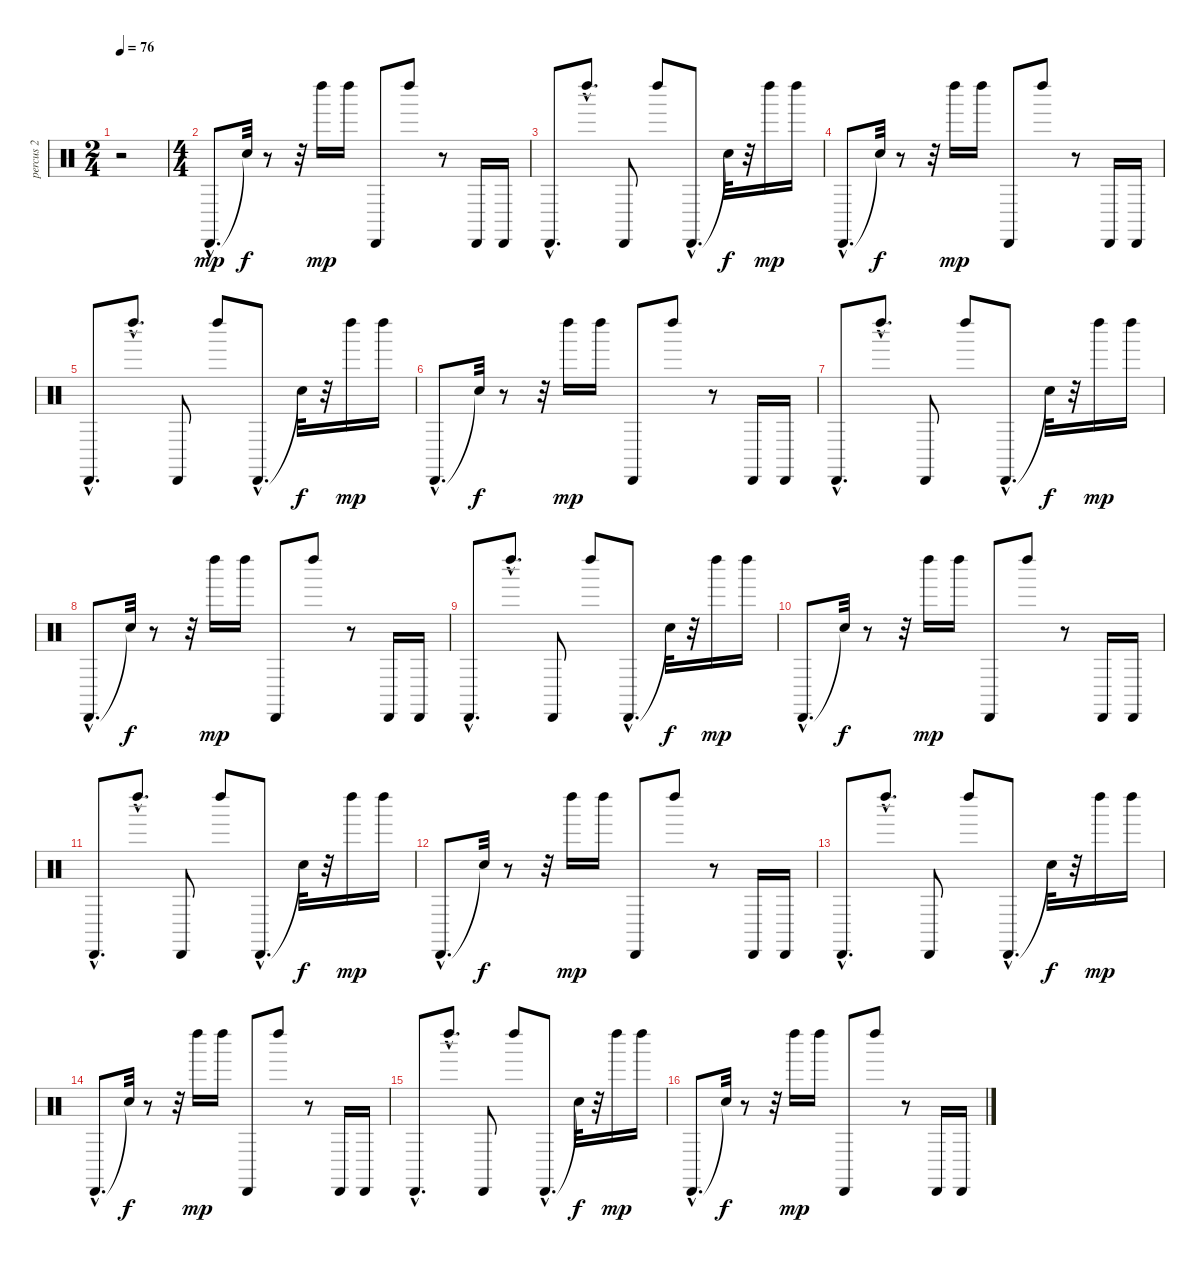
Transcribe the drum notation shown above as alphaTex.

\track ("percus 2" "percus 2") {instrument percussion}
\staff {score}
\articulation defaults
\ts (2 4)
\tempo 76
\clef neutral
\ks c
r.2{dy mp} |
\ts (4 4)
"Cabasa (hit)"{hac}.8{d} "Snare (hit)"{t}.32{dy f} r.8 r.32 "Left Maraca (hit)".16{dy mp} "Left Maraca (hit)".16 "Cabasa (hit)".8 "Left Maraca (hit)".8 r.8 "Cabasa (hit)".16 "Cabasa (hit)".16 |
"Cabasa (hit)"{hac}.8{d} "Left Maraca (hit)"{hac}.8{d} "Cabasa (hit)".8 "Left Maraca (hit)".8 "Cabasa (hit)"{hac}.8{d} "Snare (hit)"{t}.32{dy f} r.32 "Left Maraca (hit)".16{dy mp} "Left Maraca (hit)".16 |
"Cabasa (hit)"{hac}.8{d} "Snare (hit)"{t}.32{dy f} r.8 r.32 "Left Maraca (hit)".16{dy mp} "Left Maraca (hit)".16 "Cabasa (hit)".8 "Left Maraca (hit)".8 r.8 "Cabasa (hit)".16 "Cabasa (hit)".16 |
"Cabasa (hit)"{hac}.8{d} "Left Maraca (hit)"{hac}.8{d} "Cabasa (hit)".8 "Left Maraca (hit)".8 "Cabasa (hit)"{hac}.8{d} "Snare (hit)"{t}.32{dy f} r.32 "Left Maraca (hit)".16{dy mp} "Left Maraca (hit)".16 |
"Cabasa (hit)"{hac}.8{d} "Snare (hit)"{t}.32{dy f} r.8 r.32 "Left Maraca (hit)".16{dy mp} "Left Maraca (hit)".16 "Cabasa (hit)".8 "Left Maraca (hit)".8 r.8 "Cabasa (hit)".16 "Cabasa (hit)".16 |
"Cabasa (hit)"{hac}.8{d} "Left Maraca (hit)"{hac}.8{d} "Cabasa (hit)".8 "Left Maraca (hit)".8 "Cabasa (hit)"{hac}.8{d} "Snare (hit)"{t}.32{dy f} r.32 "Left Maraca (hit)".16{dy mp} "Left Maraca (hit)".16 |
"Cabasa (hit)"{hac}.8{d} "Snare (hit)"{t}.32{dy f} r.8 r.32 "Left Maraca (hit)".16{dy mp} "Left Maraca (hit)".16 "Cabasa (hit)".8 "Left Maraca (hit)".8 r.8 "Cabasa (hit)".16 "Cabasa (hit)".16 |
"Cabasa (hit)"{hac}.8{d} "Left Maraca (hit)"{hac}.8{d} "Cabasa (hit)".8 "Left Maraca (hit)".8 "Cabasa (hit)"{hac}.8{d} "Snare (hit)"{t}.32{dy f} r.32 "Left Maraca (hit)".16{dy mp} "Left Maraca (hit)".16 |
"Cabasa (hit)"{hac}.8{d} "Snare (hit)"{t}.32{dy f} r.8 r.32 "Left Maraca (hit)".16{dy mp} "Left Maraca (hit)".16 "Cabasa (hit)".8 "Left Maraca (hit)".8 r.8 "Cabasa (hit)".16 "Cabasa (hit)".16 |
"Cabasa (hit)"{hac}.8{d} "Left Maraca (hit)"{hac}.8{d} "Cabasa (hit)".8 "Left Maraca (hit)".8 "Cabasa (hit)"{hac}.8{d} "Snare (hit)"{t}.32{dy f} r.32 "Left Maraca (hit)".16{dy mp} "Left Maraca (hit)".16 |
"Cabasa (hit)"{hac}.8{d} "Snare (hit)"{t}.32{dy f} r.8 r.32 "Left Maraca (hit)".16{dy mp} "Left Maraca (hit)".16 "Cabasa (hit)".8 "Left Maraca (hit)".8 r.8 "Cabasa (hit)".16 "Cabasa (hit)".16 |
"Cabasa (hit)"{hac}.8{d} "Left Maraca (hit)"{hac}.8{d} "Cabasa (hit)".8 "Left Maraca (hit)".8 "Cabasa (hit)"{hac}.8{d} "Snare (hit)"{t}.32{dy f} r.32 "Left Maraca (hit)".16{dy mp} "Left Maraca (hit)".16 |
"Cabasa (hit)"{hac}.8{d} "Snare (hit)"{t}.32{dy f} r.8 r.32 "Left Maraca (hit)".16{dy mp} "Left Maraca (hit)".16 "Cabasa (hit)".8 "Left Maraca (hit)".8 r.8 "Cabasa (hit)".16 "Cabasa (hit)".16 |
"Cabasa (hit)"{hac}.8{d} "Left Maraca (hit)"{hac}.8{d} "Cabasa (hit)".8 "Left Maraca (hit)".8 "Cabasa (hit)"{hac}.8{d} "Snare (hit)"{t}.32{dy f} r.32 "Left Maraca (hit)".16{dy mp} "Left Maraca (hit)".16 |
"Cabasa (hit)"{hac}.8{d} "Snare (hit)"{t}.32{dy f} r.8 r.32 "Left Maraca (hit)".16{dy mp} "Left Maraca (hit)".16 "Cabasa (hit)".8 "Left Maraca (hit)".8 r.8 "Cabasa (hit)".16 "Cabasa (hit)".16
